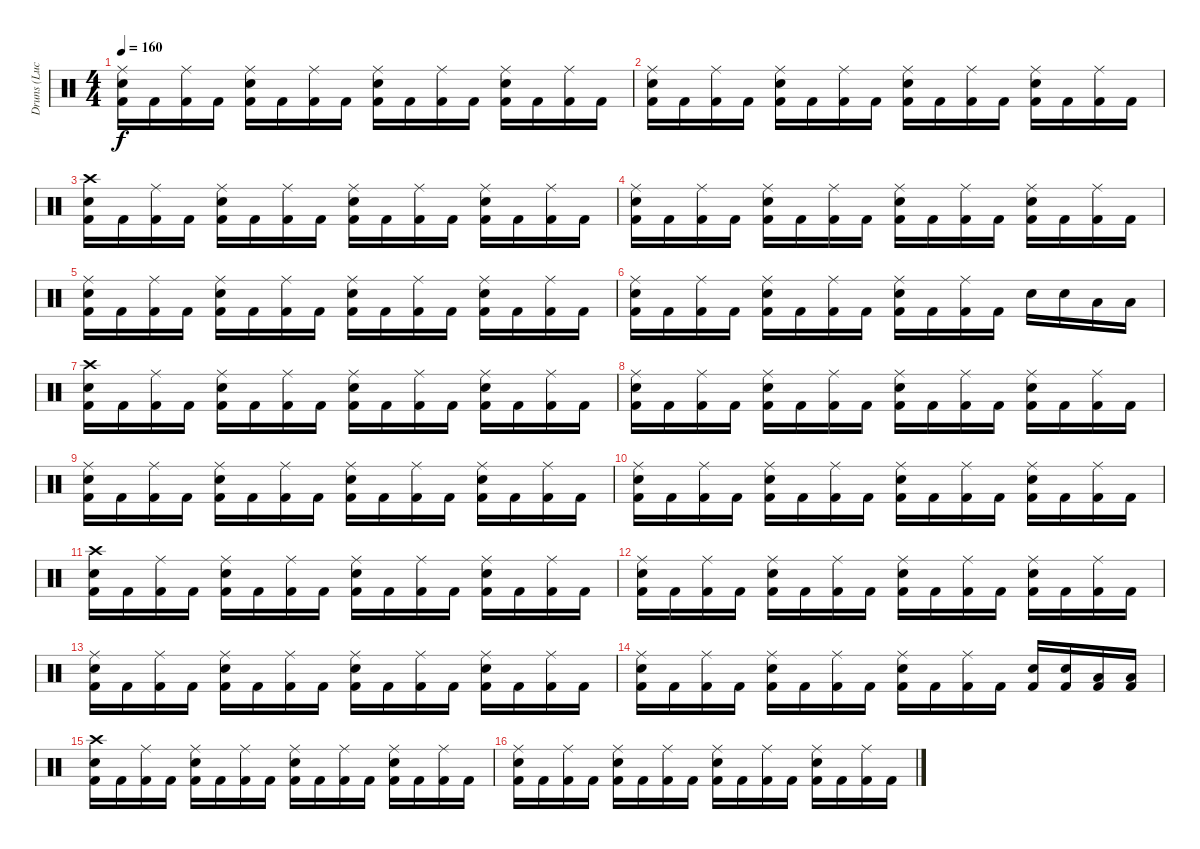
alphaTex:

\track ("Druns (Lucas Zigarti)" "Druns (Luc") {instrument percussion}
\staff {score}
\articulation defaults
\ts (4 4)
\tempo 160
\clef neutral
\ks c
("Electric Snare (hit)" "Ride (middle)" "Kick (hit) 2").16{dy f} "Kick (hit) 2".16 ("Ride (middle)" "Kick (hit) 2").16 "Kick (hit) 2".16 ("Electric Snare (hit)" "Ride (middle)" "Kick (hit) 2").16 "Kick (hit) 2".16 ("Ride (middle)" "Kick (hit) 2").16 "Kick (hit) 2".16 ("Electric Snare (hit)" "Ride (middle)" "Kick (hit) 2").16 "Kick (hit) 2".16 ("Ride (middle)" "Kick (hit) 2").16 "Kick (hit) 2".16 ("Electric Snare (hit)" "Ride (middle)" "Kick (hit) 2").16 "Kick (hit) 2".16 ("Ride (middle)" "Kick (hit) 2").16 "Kick (hit) 2".16 |
("Electric Snare (hit)" "Ride (middle)" "Kick (hit) 2").16 "Kick (hit) 2".16 ("Ride (middle)" "Kick (hit) 2").16 "Kick (hit) 2".16 ("Electric Snare (hit)" "Ride (middle)" "Kick (hit) 2").16 "Kick (hit) 2".16 ("Ride (middle)" "Kick (hit) 2").16 "Kick (hit) 2".16 ("Electric Snare (hit)" "Ride (middle)" "Kick (hit) 2").16 "Kick (hit) 2".16 ("Ride (middle)" "Kick (hit) 2").16 "Kick (hit) 2".16 ("Electric Snare (hit)" "Ride (middle)" "Kick (hit) 2").16 "Kick (hit) 2".16 ("Ride (middle)" "Kick (hit) 2").16 "Kick (hit) 2".16 |
("Electric Snare (hit)" "Crash high (hit)" "Kick (hit) 2").16 "Kick (hit) 2".16 ("Ride (middle)" "Kick (hit) 2").16 "Kick (hit) 2".16 ("Electric Snare (hit)" "Ride (middle)" "Kick (hit) 2").16 "Kick (hit) 2".16 ("Ride (middle)" "Kick (hit) 2").16 "Kick (hit) 2".16 ("Electric Snare (hit)" "Ride (middle)" "Kick (hit) 2").16 "Kick (hit) 2".16 ("Ride (middle)" "Kick (hit) 2").16 "Kick (hit) 2".16 ("Electric Snare (hit)" "Ride (middle)" "Kick (hit) 2").16 "Kick (hit) 2".16 ("Ride (middle)" "Kick (hit) 2").16 "Kick (hit) 2".16 |
("Electric Snare (hit)" "Ride (middle)" "Kick (hit) 2").16 "Kick (hit) 2".16 ("Ride (middle)" "Kick (hit) 2").16 "Kick (hit) 2".16 ("Electric Snare (hit)" "Ride (middle)" "Kick (hit) 2").16 "Kick (hit) 2".16 ("Ride (middle)" "Kick (hit) 2").16 "Kick (hit) 2".16 ("Electric Snare (hit)" "Ride (middle)" "Kick (hit) 2").16 "Kick (hit) 2".16 ("Ride (middle)" "Kick (hit) 2").16 "Kick (hit) 2".16 ("Electric Snare (hit)" "Ride (middle)" "Kick (hit) 2").16 "Kick (hit) 2".16 ("Ride (middle)" "Kick (hit) 2").16 "Kick (hit) 2".16 |
("Electric Snare (hit)" "Ride (middle)" "Kick (hit) 2").16 "Kick (hit) 2".16 ("Ride (middle)" "Kick (hit) 2").16 "Kick (hit) 2".16 ("Electric Snare (hit)" "Ride (middle)" "Kick (hit) 2").16 "Kick (hit) 2".16 ("Ride (middle)" "Kick (hit) 2").16 "Kick (hit) 2".16 ("Electric Snare (hit)" "Ride (middle)" "Kick (hit) 2").16 "Kick (hit) 2".16 ("Ride (middle)" "Kick (hit) 2").16 "Kick (hit) 2".16 ("Electric Snare (hit)" "Ride (middle)" "Kick (hit) 2").16 "Kick (hit) 2".16 ("Ride (middle)" "Kick (hit) 2").16 "Kick (hit) 2".16 |
("Electric Snare (hit)" "Ride (middle)" "Kick (hit) 2").16 "Kick (hit) 2".16 ("Ride (middle)" "Kick (hit) 2").16 "Kick (hit) 2".16 ("Electric Snare (hit)" "Ride (middle)" "Kick (hit) 2").16 "Kick (hit) 2".16 ("Ride (middle)" "Kick (hit) 2").16 "Kick (hit) 2".16 ("Electric Snare (hit)" "Ride (middle)" "Kick (hit) 2").16 "Kick (hit) 2".16 ("Ride (middle)" "Kick (hit) 2").16 "Kick (hit) 2".16 "Electric Snare (hit)".16 "Electric Snare (hit)".16 "Low Floor Tom (hit)".16 "Low Floor Tom (hit)".16 |
("Electric Snare (hit)" "Crash high (hit)" "Kick (hit) 2").16 "Kick (hit) 2".16 ("Ride (middle)" "Kick (hit) 2").16 "Kick (hit) 2".16 ("Electric Snare (hit)" "Ride (middle)" "Kick (hit) 2").16 "Kick (hit) 2".16 ("Ride (middle)" "Kick (hit) 2").16 "Kick (hit) 2".16 ("Electric Snare (hit)" "Ride (middle)" "Kick (hit) 2").16 "Kick (hit) 2".16 ("Ride (middle)" "Kick (hit) 2").16 "Kick (hit) 2".16 ("Electric Snare (hit)" "Ride (middle)" "Kick (hit) 2").16 "Kick (hit) 2".16 ("Ride (middle)" "Kick (hit) 2").16 "Kick (hit) 2".16 |
("Electric Snare (hit)" "Ride (middle)" "Kick (hit) 2").16 "Kick (hit) 2".16 ("Ride (middle)" "Kick (hit) 2").16 "Kick (hit) 2".16 ("Electric Snare (hit)" "Ride (middle)" "Kick (hit) 2").16 "Kick (hit) 2".16 ("Ride (middle)" "Kick (hit) 2").16 "Kick (hit) 2".16 ("Electric Snare (hit)" "Ride (middle)" "Kick (hit) 2").16 "Kick (hit) 2".16 ("Ride (middle)" "Kick (hit) 2").16 "Kick (hit) 2".16 ("Electric Snare (hit)" "Ride (middle)" "Kick (hit) 2").16 "Kick (hit) 2".16 ("Ride (middle)" "Kick (hit) 2").16 "Kick (hit) 2".16 |
("Electric Snare (hit)" "Ride (middle)" "Kick (hit) 2").16 "Kick (hit) 2".16 ("Ride (middle)" "Kick (hit) 2").16 "Kick (hit) 2".16 ("Electric Snare (hit)" "Ride (middle)" "Kick (hit) 2").16 "Kick (hit) 2".16 ("Ride (middle)" "Kick (hit) 2").16 "Kick (hit) 2".16 ("Electric Snare (hit)" "Ride (middle)" "Kick (hit) 2").16 "Kick (hit) 2".16 ("Ride (middle)" "Kick (hit) 2").16 "Kick (hit) 2".16 ("Electric Snare (hit)" "Ride (middle)" "Kick (hit) 2").16 "Kick (hit) 2".16 ("Ride (middle)" "Kick (hit) 2").16 "Kick (hit) 2".16 |
("Electric Snare (hit)" "Ride (middle)" "Kick (hit) 2").16 "Kick (hit) 2".16 ("Ride (middle)" "Kick (hit) 2").16 "Kick (hit) 2".16 ("Electric Snare (hit)" "Ride (middle)" "Kick (hit) 2").16 "Kick (hit) 2".16 ("Ride (middle)" "Kick (hit) 2").16 "Kick (hit) 2".16 ("Electric Snare (hit)" "Ride (middle)" "Kick (hit) 2").16 "Kick (hit) 2".16 ("Ride (middle)" "Kick (hit) 2").16 "Kick (hit) 2".16 ("Electric Snare (hit)" "Ride (middle)" "Kick (hit) 2").16 "Kick (hit) 2".16 ("Ride (middle)" "Kick (hit) 2").16 "Kick (hit) 2".16 |
("Electric Snare (hit)" "Crash high (hit)" "Kick (hit) 2").16 "Kick (hit) 2".16 ("Ride (middle)" "Kick (hit) 2").16 "Kick (hit) 2".16 ("Electric Snare (hit)" "Ride (middle)" "Kick (hit) 2").16 "Kick (hit) 2".16 ("Ride (middle)" "Kick (hit) 2").16 "Kick (hit) 2".16 ("Electric Snare (hit)" "Ride (middle)" "Kick (hit) 2").16 "Kick (hit) 2".16 ("Ride (middle)" "Kick (hit) 2").16 "Kick (hit) 2".16 ("Electric Snare (hit)" "Ride (middle)" "Kick (hit) 2").16 "Kick (hit) 2".16 ("Ride (middle)" "Kick (hit) 2").16 "Kick (hit) 2".16 |
("Electric Snare (hit)" "Ride (middle)" "Kick (hit) 2").16 "Kick (hit) 2".16 ("Ride (middle)" "Kick (hit) 2").16 "Kick (hit) 2".16 ("Electric Snare (hit)" "Ride (middle)" "Kick (hit) 2").16 "Kick (hit) 2".16 ("Ride (middle)" "Kick (hit) 2").16 "Kick (hit) 2".16 ("Electric Snare (hit)" "Ride (middle)" "Kick (hit) 2").16 "Kick (hit) 2".16 ("Ride (middle)" "Kick (hit) 2").16 "Kick (hit) 2".16 ("Electric Snare (hit)" "Ride (middle)" "Kick (hit) 2").16 "Kick (hit) 2".16 ("Ride (middle)" "Kick (hit) 2").16 "Kick (hit) 2".16 |
("Electric Snare (hit)" "Ride (middle)" "Kick (hit) 2").16 "Kick (hit) 2".16 ("Ride (middle)" "Kick (hit) 2").16 "Kick (hit) 2".16 ("Electric Snare (hit)" "Ride (middle)" "Kick (hit) 2").16 "Kick (hit) 2".16 ("Ride (middle)" "Kick (hit) 2").16 "Kick (hit) 2".16 ("Electric Snare (hit)" "Ride (middle)" "Kick (hit) 2").16 "Kick (hit) 2".16 ("Ride (middle)" "Kick (hit) 2").16 "Kick (hit) 2".16 ("Electric Snare (hit)" "Ride (middle)" "Kick (hit) 2").16 "Kick (hit) 2".16 ("Ride (middle)" "Kick (hit) 2").16 "Kick (hit) 2".16 |
("Electric Snare (hit)" "Ride (middle)" "Kick (hit) 2").16 "Kick (hit) 2".16 ("Ride (middle)" "Kick (hit) 2").16 "Kick (hit) 2".16 ("Electric Snare (hit)" "Ride (middle)" "Kick (hit) 2").16 "Kick (hit) 2".16 ("Ride (middle)" "Kick (hit) 2").16 "Kick (hit) 2".16 ("Electric Snare (hit)" "Ride (middle)" "Kick (hit) 2").16 "Kick (hit) 2".16 ("Ride (middle)" "Kick (hit) 2").16 "Kick (hit) 2".16 ("Electric Snare (hit)" "Kick (hit) 2").16 ("Electric Snare (hit)" "Kick (hit) 2").16 ("Low Floor Tom (hit)" "Kick (hit) 2").16 ("Low Floor Tom (hit)" "Kick (hit) 2").16 |
("Electric Snare (hit)" "Crash high (hit)" "Kick (hit) 2").16 "Kick (hit) 2".16 ("Ride (middle)" "Kick (hit) 2").16 "Kick (hit) 2".16 ("Electric Snare (hit)" "Ride (middle)" "Kick (hit) 2").16 "Kick (hit) 2".16 ("Ride (middle)" "Kick (hit) 2").16 "Kick (hit) 2".16 ("Electric Snare (hit)" "Ride (middle)" "Kick (hit) 2").16 "Kick (hit) 2".16 ("Ride (middle)" "Kick (hit) 2").16 "Kick (hit) 2".16 ("Electric Snare (hit)" "Ride (middle)" "Kick (hit) 2").16 "Kick (hit) 2".16 ("Ride (middle)" "Kick (hit) 2").16 "Kick (hit) 2".16 |
("Electric Snare (hit)" "Ride (middle)" "Kick (hit) 2").16 "Kick (hit) 2".16 ("Ride (middle)" "Kick (hit) 2").16 "Kick (hit) 2".16 ("Electric Snare (hit)" "Ride (middle)" "Kick (hit) 2").16 "Kick (hit) 2".16 ("Ride (middle)" "Kick (hit) 2").16 "Kick (hit) 2".16 ("Electric Snare (hit)" "Ride (middle)" "Kick (hit) 2").16 "Kick (hit) 2".16 ("Ride (middle)" "Kick (hit) 2").16 "Kick (hit) 2".16 ("Electric Snare (hit)" "Ride (middle)" "Kick (hit) 2").16 "Kick (hit) 2".16 ("Ride (middle)" "Kick (hit) 2").16 "Kick (hit) 2".16
